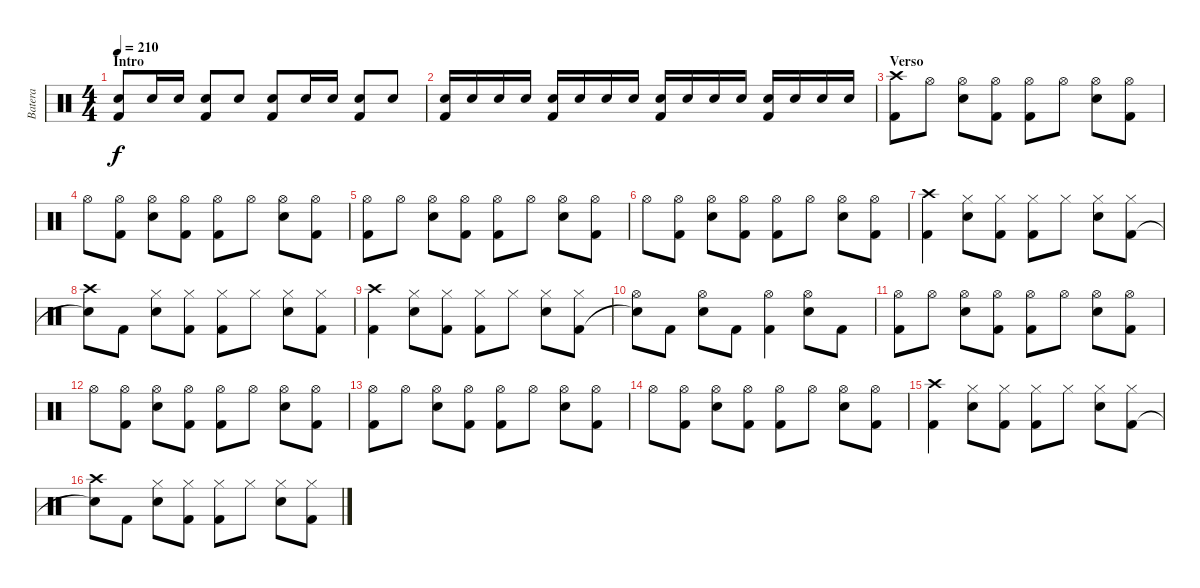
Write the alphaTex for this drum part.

\track ("Batera" "Batera") {instrument percussion}
\staff {score}
\articulation defaults
\ts (4 4)
\section ("" "Intro")
\tempo 210
\clef neutral
\ks c
("Electric Snare (hit)" "Kick (hit) 2").8{dy f} "Electric Snare (hit)".16 "Electric Snare (hit)".16 ("Electric Snare (hit)" "Kick (hit) 2").8 "Electric Snare (hit)".8 ("Electric Snare (hit)" "Kick (hit) 2").8 "Electric Snare (hit)".16 "Electric Snare (hit)".16 ("Electric Snare (hit)" "Kick (hit) 2").8 "Electric Snare (hit)".8 |
("Electric Snare (hit)" "Kick (hit) 2").16 "Electric Snare (hit)".16 "Electric Snare (hit)".16 "Electric Snare (hit)".16 ("Electric Snare (hit)" "Kick (hit) 2").16 "Electric Snare (hit)".16 "Electric Snare (hit)".16 "Electric Snare (hit)".16 ("Electric Snare (hit)" "Kick (hit) 2").16 "Electric Snare (hit)".16 "Electric Snare (hit)".16 "Electric Snare (hit)".16 ("Electric Snare (hit)" "Kick (hit) 2").16 "Electric Snare (hit)".16 "Electric Snare (hit)".16 "Electric Snare (hit)".16 |
\section ("" "Verso")
("Crash high (hit)" "Kick (hit) 2").8 "Hi-Hat (open)".8 ("Hi-Hat (open)" "Electric Snare (hit)").8 ("Hi-Hat (open)" "Kick (hit) 2").8 ("Hi-Hat (open)" "Kick (hit) 2").8 "Hi-Hat (open)".8 ("Hi-Hat (open)" "Electric Snare (hit)").8 ("Hi-Hat (open)" "Kick (hit) 2").8 |
"Hi-Hat (open)".8 ("Hi-Hat (open)" "Kick (hit) 2").8 ("Hi-Hat (open)" "Electric Snare (hit)").8 ("Hi-Hat (open)" "Kick (hit) 2").8 ("Hi-Hat (open)" "Kick (hit) 2").8 "Hi-Hat (open)".8 ("Hi-Hat (open)" "Electric Snare (hit)").8 ("Hi-Hat (open)" "Kick (hit) 2").8 |
("Hi-Hat (open)" "Kick (hit) 2").8 "Hi-Hat (open)".8 ("Hi-Hat (open)" "Electric Snare (hit)").8 ("Hi-Hat (open)" "Kick (hit) 2").8 ("Hi-Hat (open)" "Kick (hit) 2").8 "Hi-Hat (open)".8 ("Hi-Hat (open)" "Electric Snare (hit)").8 ("Hi-Hat (open)" "Kick (hit) 2").8 |
"Hi-Hat (open)".8 ("Hi-Hat (open)" "Kick (hit) 2").8 ("Hi-Hat (open)" "Electric Snare (hit)").8 ("Hi-Hat (open)" "Kick (hit) 2").8 ("Hi-Hat (open)" "Kick (hit) 2").8 "Hi-Hat (open)".8 ("Hi-Hat (open)" "Electric Snare (hit)").8 ("Hi-Hat (open)" "Kick (hit) 2").8 |
("Crash high (hit)" "Kick (hit) 2").4 ("Hi-Hat (closed)" "Electric Snare (hit)").8 ("Hi-Hat (closed)" "Kick (hit) 2").8 ("Hi-Hat (closed)" "Kick (hit) 2").8 "Hi-Hat (closed)".8 ("Hi-Hat (closed)" "Electric Snare (hit)").8 ("Hi-Hat (closed)" "Kick (hit) 2").8 |
("Crash high (hit)" "Snare (hit)"{t}).8 "Kick (hit) 2".8 ("Hi-Hat (closed)" "Electric Snare (hit)").8 ("Hi-Hat (closed)" "Kick (hit) 2").8 ("Hi-Hat (closed)" "Kick (hit) 2").8 "Hi-Hat (closed)".8 ("Hi-Hat (closed)" "Electric Snare (hit)").8 ("Hi-Hat (closed)" "Kick (hit) 2").8 |
("Crash high (hit)" "Kick (hit) 2").4 ("Hi-Hat (closed)" "Electric Snare (hit)").8 ("Hi-Hat (closed)" "Kick (hit) 2").8 ("Hi-Hat (closed)" "Kick (hit) 2").8 "Hi-Hat (closed)".8 ("Hi-Hat (closed)" "Electric Snare (hit)").8 ("Hi-Hat (closed)" "Kick (hit) 2").8 |
("Hi-Hat (open)" "Snare (hit)"{t}).8 "Kick (hit) 2".8 ("Hi-Hat (open)" "Electric Snare (hit)").8 "Kick (hit) 2".8 ("Hi-Hat (open)" "Kick (hit) 2").4 ("Hi-Hat (open)" "Electric Snare (hit)").8 "Kick (hit) 2".8 |
("Hi-Hat (open)" "Kick (hit) 2").8 "Hi-Hat (open)".8 ("Hi-Hat (open)" "Electric Snare (hit)").8 ("Hi-Hat (open)" "Kick (hit) 2").8 ("Hi-Hat (open)" "Kick (hit) 2").8 "Hi-Hat (open)".8 ("Hi-Hat (open)" "Electric Snare (hit)").8 ("Hi-Hat (open)" "Kick (hit) 2").8 |
"Hi-Hat (open)".8 ("Hi-Hat (open)" "Kick (hit) 2").8 ("Hi-Hat (open)" "Electric Snare (hit)").8 ("Hi-Hat (open)" "Kick (hit) 2").8 ("Hi-Hat (open)" "Kick (hit) 2").8 "Hi-Hat (open)".8 ("Hi-Hat (open)" "Electric Snare (hit)").8 ("Hi-Hat (open)" "Kick (hit) 2").8 |
("Hi-Hat (open)" "Kick (hit) 2").8 "Hi-Hat (open)".8 ("Hi-Hat (open)" "Electric Snare (hit)").8 ("Hi-Hat (open)" "Kick (hit) 2").8 ("Hi-Hat (open)" "Kick (hit) 2").8 "Hi-Hat (open)".8 ("Hi-Hat (open)" "Electric Snare (hit)").8 ("Hi-Hat (open)" "Kick (hit) 2").8 |
"Hi-Hat (open)".8 ("Hi-Hat (open)" "Kick (hit) 2").8 ("Hi-Hat (open)" "Electric Snare (hit)").8 ("Hi-Hat (open)" "Kick (hit) 2").8 ("Hi-Hat (open)" "Kick (hit) 2").8 "Hi-Hat (open)".8 ("Hi-Hat (open)" "Electric Snare (hit)").8 ("Hi-Hat (open)" "Kick (hit) 2").8 |
("Crash high (hit)" "Kick (hit) 2").4 ("Hi-Hat (closed)" "Electric Snare (hit)").8 ("Hi-Hat (closed)" "Kick (hit) 2").8 ("Hi-Hat (closed)" "Kick (hit) 2").8 "Hi-Hat (closed)".8 ("Hi-Hat (closed)" "Electric Snare (hit)").8 ("Hi-Hat (closed)" "Kick (hit) 2").8 |
("Crash high (hit)" "Snare (hit)"{t}).8 "Kick (hit) 2".8 ("Hi-Hat (closed)" "Electric Snare (hit)").8 ("Hi-Hat (closed)" "Kick (hit) 2").8 ("Hi-Hat (closed)" "Kick (hit) 2").8 "Hi-Hat (closed)".8 ("Hi-Hat (closed)" "Electric Snare (hit)").8 ("Hi-Hat (closed)" "Kick (hit) 2").8
